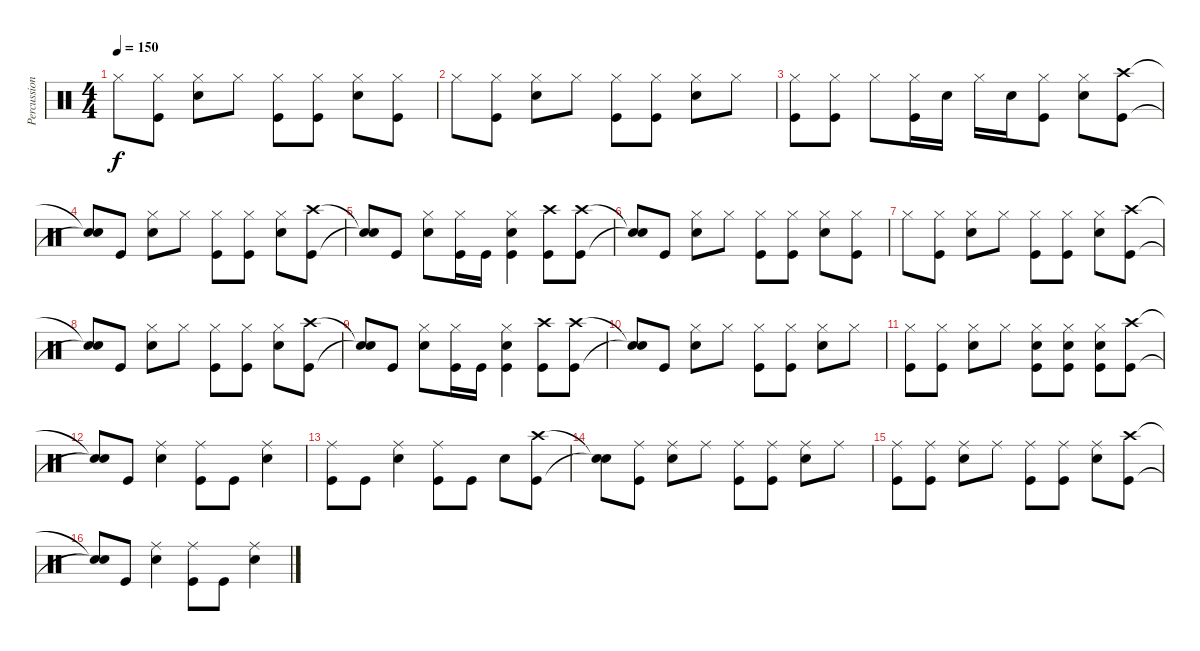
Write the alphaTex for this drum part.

\track ("Percussion" "Percussion") {instrument percussion}
\staff {score}
\articulation defaults
\ts (4 4)
\tempo 150
\clef neutral
\ks c "Hi-Hat (closed)".8{dy f}
("Hi-Hat (closed)" "Kick (hit)").8 ("Hi-Hat (closed)" "Electric Snare (hit)").8 "Hi-Hat (closed)".8 ("Hi-Hat (closed)" "Kick (hit)").8 ("Hi-Hat (closed)" "Kick (hit)").8 ("Hi-Hat (closed)" "Electric Snare (hit)").8 ("Hi-Hat (closed)" "Kick (hit)").8 |
"Hi-Hat (closed)".8 ("Hi-Hat (closed)" "Kick (hit)").8 ("Hi-Hat (closed)" "Electric Snare (hit)").8 "Hi-Hat (closed)".8 ("Hi-Hat (closed)" "Kick (hit)").8 ("Hi-Hat (closed)" "Kick (hit)").8 ("Hi-Hat (closed)" "Electric Snare (hit)").8 "Hi-Hat (closed)".8 |
("Hi-Hat (closed)" "Kick (hit)").8 ("Hi-Hat (closed)" "Kick (hit)").8 "Hi-Hat (closed)".8 ("Hi-Hat (closed)" "Kick (hit)").16 "Electric Snare (hit)".16 "Hi-Hat (closed)".16 "Electric Snare (hit)".16 ("Hi-Hat (closed)" "Kick (hit)").8 ("Hi-Hat (closed)" "Electric Snare (hit)").8 ("Crash high (hit)" "Kick (hit)").8 |
("Snare (hit)"{t} "Snare (hit)"{t}).8 "Kick (hit)".8 ("Hi-Hat (closed)" "Electric Snare (hit)").8 "Hi-Hat (closed)".8 ("Hi-Hat (closed)" "Kick (hit)").8 ("Hi-Hat (closed)" "Kick (hit)").8 ("Hi-Hat (closed)" "Electric Snare (hit)").8 ("Crash high (hit)" "Kick (hit)").8 |
("Snare (hit)"{t} "Snare (hit)"{t}).8 "Kick (hit)".8 ("Hi-Hat (closed)" "Electric Snare (hit)").8 ("Hi-Hat (closed)" "Kick (hit)").16 "Kick (hit)".16 ("Hi-Hat (closed)" "Electric Snare (hit)" "Kick (hit)").4 ("Crash high (hit)" "Kick (hit)").8 ("Crash high (hit)" "Kick (hit)").8 |
("Snare (hit)"{t} "Snare (hit)"{t}).8 "Kick (hit)".8 ("Hi-Hat (closed)" "Electric Snare (hit)").8 "Hi-Hat (closed)".8 ("Hi-Hat (closed)" "Kick (hit)").8 ("Hi-Hat (closed)" "Kick (hit)").8 ("Hi-Hat (closed)" "Electric Snare (hit)").8 ("Hi-Hat (closed)" "Kick (hit)").8 |
"Hi-Hat (closed)".8 ("Hi-Hat (closed)" "Kick (hit)").8 ("Hi-Hat (closed)" "Electric Snare (hit)").8 "Hi-Hat (closed)".8 ("Hi-Hat (closed)" "Kick (hit)").8 ("Hi-Hat (closed)" "Kick (hit)").8 ("Hi-Hat (closed)" "Electric Snare (hit)").8 ("Crash high (hit)" "Kick (hit)").8 |
("Snare (hit)"{t} "Snare (hit)"{t}).8 "Kick (hit)".8 ("Hi-Hat (closed)" "Electric Snare (hit)").8 "Hi-Hat (closed)".8 ("Hi-Hat (closed)" "Kick (hit)").8 ("Hi-Hat (closed)" "Kick (hit)").8 ("Hi-Hat (closed)" "Electric Snare (hit)").8 ("Crash high (hit)" "Kick (hit)").8 |
("Snare (hit)"{t} "Snare (hit)"{t}).8 "Kick (hit)".8 ("Hi-Hat (closed)" "Electric Snare (hit)").8 ("Hi-Hat (closed)" "Kick (hit)").16 "Kick (hit)".16 ("Hi-Hat (closed)" "Electric Snare (hit)" "Kick (hit)").4 ("Crash high (hit)" "Kick (hit)").8 ("Crash high (hit)" "Kick (hit)").8 |
("Snare (hit)"{t} "Snare (hit)"{t}).8 "Kick (hit)".8 ("Hi-Hat (closed)" "Electric Snare (hit)").8 "Hi-Hat (closed)".8 ("Hi-Hat (closed)" "Kick (hit)").8 ("Hi-Hat (closed)" "Kick (hit)").8 ("Hi-Hat (closed)" "Electric Snare (hit)").8 "Hi-Hat (closed)".8 |
("Hi-Hat (closed)" "Kick (hit)").8 ("Hi-Hat (closed)" "Kick (hit)").8 ("Hi-Hat (closed)" "Electric Snare (hit)").8 "Hi-Hat (closed)".8 ("Electric Snare (hit)" "Hi-Hat (closed)" "Kick (hit)").8 ("Electric Snare (hit)" "Hi-Hat (closed)" "Kick (hit)").8 ("Electric Snare (hit)" "Hi-Hat (closed)" "Kick (hit)").8 ("Crash high (hit)" "Kick (hit)").8 |
("Snare (hit)"{t} "Snare (hit)"{t}).8 "Kick (hit)".8 ("Ride (middle)" "Electric Snare (hit)").4 ("Ride (middle)" "Kick (hit)").8 "Kick (hit)".8 ("Ride (middle)" "Electric Snare (hit)").4 |
("Ride (middle)" "Kick (hit)").8 "Kick (hit)".8 ("Ride (middle)" "Electric Snare (hit)").4 ("Ride (middle)" "Kick (hit)").8 "Kick (hit)".8 "Electric Snare (hit)".8 ("Crash high (hit)" "Kick (hit)").8 |
("Snare (hit)"{t} "Snare (hit)"{t}).8 ("Ride (middle)" "Kick (hit)").8 ("Ride (middle)" "Electric Snare (hit)").8 "Ride (middle)".8 ("Ride (middle)" "Kick (hit)").8 ("Ride (middle)" "Kick (hit)").8 ("Ride (middle)" "Electric Snare (hit)").8 "Ride (middle)".8 |
("Ride (middle)" "Kick (hit)").8 ("Ride (middle)" "Kick (hit)").8 ("Ride (middle)" "Electric Snare (hit)").8 "Ride (middle)".8 ("Ride (middle)" "Kick (hit)").8 ("Ride (middle)" "Kick (hit)").8 ("Ride (middle)" "Electric Snare (hit)").8 ("Crash high (hit)" "Kick (hit)").8 |
("Snare (hit)"{t} "Snare (hit)"{t}).8 "Kick (hit)".8 ("Ride (middle)" "Electric Snare (hit)").4 ("Ride (middle)" "Kick (hit)").8 "Kick (hit)".8 ("Ride (middle)" "Electric Snare (hit)").4
